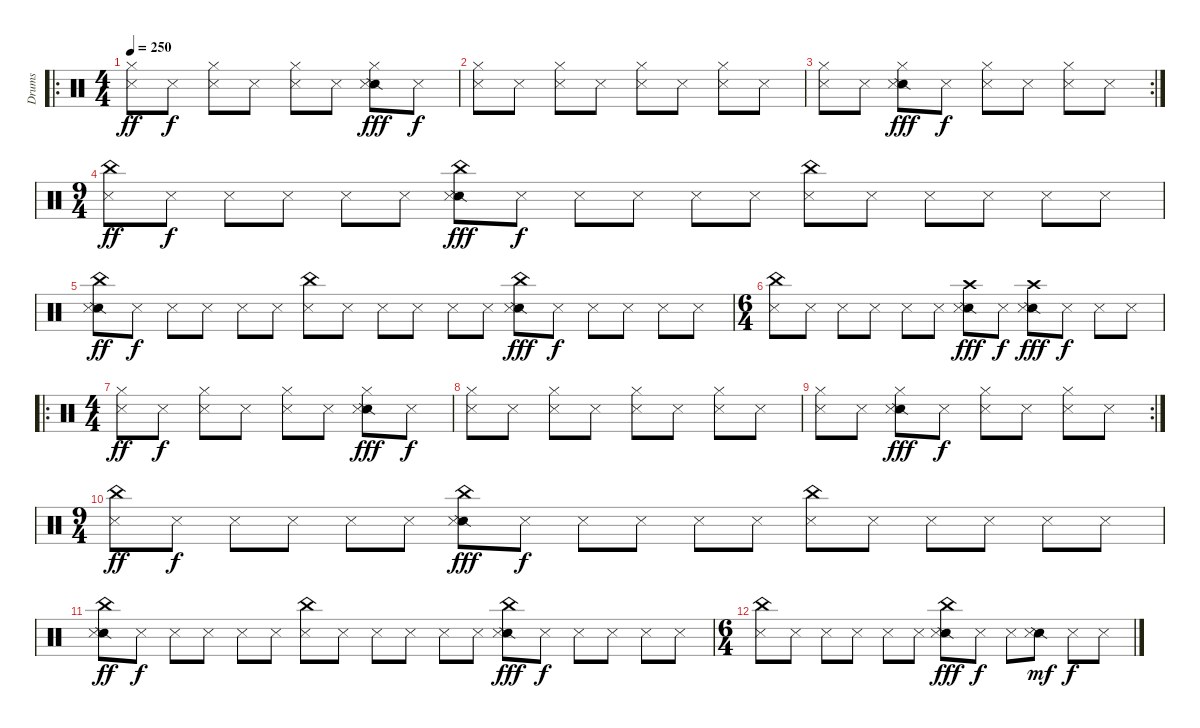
\track ("Drums" "Drums") {instrument percussion}
\staff {score}
\articulation defaults
\ro
\ts (4 4)
\tempo 250
\clef neutral
\ks c
("Hi-Hat (closed)" "Metronome (hit)").8{dy ff} "Metronome (hit)".8{dy f} ("Hi-Hat (closed)" "Metronome (hit)").8 "Metronome (hit)".8 ("Hi-Hat (closed)" "Metronome (hit)").8 "Metronome (hit)".8 ("Hi-Hat (closed)" "Snare (side stick) 2" "Metronome (hit)").8{dy fff} "Metronome (hit)".8{dy f} |
("Hi-Hat (closed)" "Metronome (hit)").8 "Metronome (hit)".8 ("Hi-Hat (closed)" "Metronome (hit)").8 "Metronome (hit)".8 ("Hi-Hat (closed)" "Metronome (hit)").8 "Metronome (hit)".8 ("Hi-Hat (closed)" "Metronome (hit)").8 "Metronome (hit)".8 |
\rc 2
("Hi-Hat (closed)" "Metronome (hit)").8 "Metronome (hit)".8 ("Hi-Hat (closed)" "Snare (side stick) 2" "Metronome (hit)").8{dy fff} "Metronome (hit)".8{dy f} ("Hi-Hat (closed)" "Metronome (hit)").8 "Metronome (hit)".8 ("Hi-Hat (closed)" "Metronome (hit)").8 "Metronome (hit)".8 |
\ts (9 4)
("China (hit)" "Metronome (hit)").8{dy ff} "Metronome (hit)".8{dy f} "Metronome (hit)".8 "Metronome (hit)".8 "Metronome (hit)".8 "Metronome (hit)".8 ("China (hit)" "Snare (side stick) 2" "Metronome (hit)").8{dy fff} "Metronome (hit)".8{dy f} "Metronome (hit)".8 "Metronome (hit)".8 "Metronome (hit)".8 "Metronome (hit)".8 ("China (hit)" "Metronome (hit)").8 "Metronome (hit)".8 "Metronome (hit)".8 "Metronome (hit)".8 "Metronome (hit)".8 "Metronome (hit)".8 |
("China (hit)" "Snare (side stick) 2" "Metronome (hit)").8{dy ff} "Metronome (hit)".8{dy f} "Metronome (hit)".8 "Metronome (hit)".8 "Metronome (hit)".8 "Metronome (hit)".8 ("China (hit)" "Metronome (hit)").8 "Metronome (hit)".8 "Metronome (hit)".8 "Metronome (hit)".8 "Metronome (hit)".8 "Metronome (hit)".8 ("China (hit)" "Snare (side stick) 2" "Metronome (hit)").8{dy fff} "Metronome (hit)".8{dy f} "Metronome (hit)".8 "Metronome (hit)".8 "Metronome (hit)".8 "Metronome (hit)".8 |
\ts (6 4)
("China (hit)" "Metronome (hit)").8 "Metronome (hit)".8 "Metronome (hit)".8 "Metronome (hit)".8 "Metronome (hit)".8 "Metronome (hit)".8 ("Snare (side stick) 2" "Crash high (hit)" "Metronome (hit)").8{dy fff} "Metronome (hit)".8{dy f} ("Snare (side stick) 2" "Crash high (hit)" "Metronome (hit)").8{dy fff} "Metronome (hit)".8{dy f} "Metronome (hit)".8 "Metronome (hit)".8 |
\ro
\ts (4 4)
("Hi-Hat (closed)" "Metronome (hit)").8{dy ff} "Metronome (hit)".8{dy f} ("Hi-Hat (closed)" "Metronome (hit)").8 "Metronome (hit)".8 ("Hi-Hat (closed)" "Metronome (hit)").8 "Metronome (hit)".8 ("Hi-Hat (closed)" "Snare (side stick) 2" "Metronome (hit)").8{dy fff} "Metronome (hit)".8{dy f} |
("Hi-Hat (closed)" "Metronome (hit)").8 "Metronome (hit)".8 ("Hi-Hat (closed)" "Metronome (hit)").8 "Metronome (hit)".8 ("Hi-Hat (closed)" "Metronome (hit)").8 "Metronome (hit)".8 ("Hi-Hat (closed)" "Metronome (hit)").8 "Metronome (hit)".8 |
\rc 2
("Hi-Hat (closed)" "Metronome (hit)").8 "Metronome (hit)".8 ("Hi-Hat (closed)" "Snare (side stick) 2" "Metronome (hit)").8{dy fff} "Metronome (hit)".8{dy f} ("Hi-Hat (closed)" "Metronome (hit)").8 "Metronome (hit)".8 ("Hi-Hat (closed)" "Metronome (hit)").8 "Metronome (hit)".8 |
\ts (9 4)
("China (hit)" "Metronome (hit)").8{dy ff} "Metronome (hit)".8{dy f} "Metronome (hit)".8 "Metronome (hit)".8 "Metronome (hit)".8 "Metronome (hit)".8 ("China (hit)" "Snare (side stick) 2" "Metronome (hit)").8{dy fff} "Metronome (hit)".8{dy f} "Metronome (hit)".8 "Metronome (hit)".8 "Metronome (hit)".8 "Metronome (hit)".8 ("China (hit)" "Metronome (hit)").8 "Metronome (hit)".8 "Metronome (hit)".8 "Metronome (hit)".8 "Metronome (hit)".8 "Metronome (hit)".8 |
("China (hit)" "Snare (side stick) 2" "Metronome (hit)").8{dy ff} "Metronome (hit)".8{dy f} "Metronome (hit)".8 "Metronome (hit)".8 "Metronome (hit)".8 "Metronome (hit)".8 ("China (hit)" "Metronome (hit)").8 "Metronome (hit)".8 "Metronome (hit)".8 "Metronome (hit)".8 "Metronome (hit)".8 "Metronome (hit)".8 ("China (hit)" "Snare (side stick) 2" "Metronome (hit)").8{dy fff} "Metronome (hit)".8{dy f} "Metronome (hit)".8 "Metronome (hit)".8 "Metronome (hit)".8 "Metronome (hit)".8 |
\ts (6 4)
("China (hit)" "Metronome (hit)").8 "Metronome (hit)".8 "Metronome (hit)".8 "Metronome (hit)".8 "Metronome (hit)".8 "Metronome (hit)".8 ("China (hit)" "Snare (side stick) 2" "Metronome (hit)").8{dy fff} "Metronome (hit)".8{dy f} "Metronome (hit)".8 ("Snare (side stick) 2" "Metronome (hit)").8{dy mf} "Metronome (hit)".8{dy f} "Metronome (hit)".8
